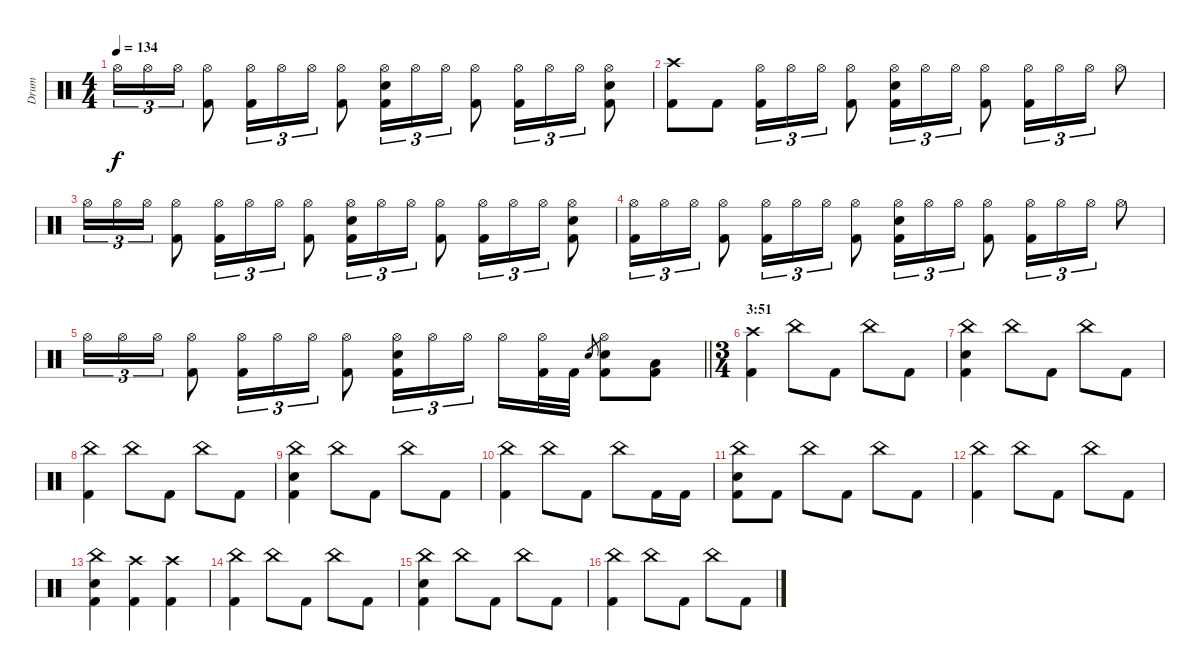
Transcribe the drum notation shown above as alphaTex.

\track ("Drum" "Drum") {instrument percussion}
\staff {score}
\articulation defaults
\ts (4 4)
\tempo 134
\clef neutral
\ks c "Hi-Hat (open)".16{tu (3 2) dy f} "Hi-Hat (open)".16{tu (3 2)} "Hi-Hat (open)".16{tu (3 2)}
("Hi-Hat (open)" "Kick (hit) 2").8 ("Hi-Hat (open)" "Kick (hit) 2").16{tu (3 2)} "Hi-Hat (open)".16{tu (3 2)} "Hi-Hat (open)".16{tu (3 2)} ("Hi-Hat (open)" "Kick (hit) 2").8 ("Hi-Hat (open)" "Electric Snare (hit)" "Kick (hit) 2").16{tu (3 2)} "Hi-Hat (open)".16{tu (3 2)} "Hi-Hat (open)".16{tu (3 2)} ("Hi-Hat (open)" "Kick (hit) 2").8 ("Hi-Hat (open)" "Kick (hit) 2").16{tu (3 2)} "Hi-Hat (open)".16{tu (3 2)} "Hi-Hat (open)".16{tu (3 2)} ("Hi-Hat (open)" "Electric Snare (hit)" "Kick (hit) 2").8 |
("Crash high (hit)" "Kick (hit) 2").8 "Kick (hit) 2".8 ("Hi-Hat (open)" "Kick (hit) 2").16{tu (3 2)} "Hi-Hat (open)".16{tu (3 2)} "Hi-Hat (open)".16{tu (3 2)} ("Hi-Hat (open)" "Kick (hit) 2").8 ("Hi-Hat (open)" "Electric Snare (hit)" "Kick (hit) 2").16{tu (3 2)} "Hi-Hat (open)".16{tu (3 2)} "Hi-Hat (open)".16{tu (3 2)} ("Hi-Hat (open)" "Kick (hit) 2").8 ("Hi-Hat (open)" "Kick (hit) 2").16{tu (3 2)} "Hi-Hat (open)".16{tu (3 2)} "Hi-Hat (open)".16{tu (3 2)} "Hi-Hat (open)".8 |
"Hi-Hat (open)".16{tu (3 2)} "Hi-Hat (open)".16{tu (3 2)} "Hi-Hat (open)".16{tu (3 2)} ("Hi-Hat (open)" "Kick (hit) 2").8 ("Hi-Hat (open)" "Kick (hit) 2").16{tu (3 2)} "Hi-Hat (open)".16{tu (3 2)} "Hi-Hat (open)".16{tu (3 2)} ("Hi-Hat (open)" "Kick (hit) 2").8 ("Hi-Hat (open)" "Electric Snare (hit)" "Kick (hit) 2").16{tu (3 2)} "Hi-Hat (open)".16{tu (3 2)} "Hi-Hat (open)".16{tu (3 2)} ("Hi-Hat (open)" "Kick (hit) 2").8 ("Hi-Hat (open)" "Kick (hit) 2").16{tu (3 2)} "Hi-Hat (open)".16{tu (3 2)} "Hi-Hat (open)".16{tu (3 2)} ("Hi-Hat (open)" "Electric Snare (hit)" "Kick (hit) 2").8 |
("Hi-Hat (open)" "Kick (hit) 2").16{tu (3 2)} "Hi-Hat (open)".16{tu (3 2)} "Hi-Hat (open)".16{tu (3 2)} ("Hi-Hat (open)" "Kick (hit) 2").8 ("Hi-Hat (open)" "Kick (hit) 2").16{tu (3 2)} "Hi-Hat (open)".16{tu (3 2)} "Hi-Hat (open)".16{tu (3 2)} ("Hi-Hat (open)" "Kick (hit) 2").8 ("Hi-Hat (open)" "Electric Snare (hit)" "Kick (hit) 2").16{tu (3 2)} "Hi-Hat (open)".16{tu (3 2)} "Hi-Hat (open)".16{tu (3 2)} ("Hi-Hat (open)" "Kick (hit) 2").8 ("Hi-Hat (open)" "Kick (hit) 2").16{tu (3 2)} "Hi-Hat (open)".16{tu (3 2)} "Hi-Hat (open)".16{tu (3 2)} "Hi-Hat (open)".8 |
\barLineRight lightlight "Hi-Hat (open)".16{tu (3 2)} "Hi-Hat (open)".16{tu (3 2)} "Hi-Hat (open)".16{tu (3 2)}
("Hi-Hat (open)" "Kick (hit) 2").8 ("Hi-Hat (open)" "Kick (hit) 2").16{tu (3 2)} "Hi-Hat (open)".16{tu (3 2)} "Hi-Hat (open)".16{tu (3 2)} ("Hi-Hat (open)" "Kick (hit) 2").8 ("Hi-Hat (open)" "Electric Snare (hit)" "Kick (hit) 2").16{tu (3 2)} "Hi-Hat (open)".16{tu (3 2)} "Hi-Hat (open)".16{tu (3 2)} "Hi-Hat (open)".16 ("Hi-Hat (open)" "Kick (hit) 2").32 "Kick (hit) 2".32 "Electric Snare (hit)".8{gr} ("Hi-Hat (open)" "Electric Snare (hit)" "Kick (hit) 2").8 ("Low Tom (hit)" "Kick (hit) 2").8 |
\ts (3 4)
\section ("" "3:51")
("Crash high (hit)" "Kick (hit) 2").4 "China (hit)".8 "Kick (hit) 2".8 "China (hit)".8 "Kick (hit) 2".8 |
("China (hit)" "Electric Snare (hit)" "Kick (hit) 2").4 "China (hit)".8 "Kick (hit) 2".8 "China (hit)".8 "Kick (hit) 2".8 |
("China (hit)" "Kick (hit) 2").4 "China (hit)".8 "Kick (hit) 2".8 "China (hit)".8 "Kick (hit) 2".8 |
("China (hit)" "Electric Snare (hit)" "Kick (hit) 2").4 "China (hit)".8 "Kick (hit) 2".8 "China (hit)".8 "Kick (hit) 2".8 |
("China (hit)" "Kick (hit) 2").4 "China (hit)".8 "Kick (hit) 2".8 "China (hit)".8 "Kick (hit) 2".16 "Kick (hit) 2".16 |
("China (hit)" "Electric Snare (hit)" "Kick (hit) 2").8 "Kick (hit) 2".8 "China (hit)".8 "Kick (hit) 2".8 "China (hit)".8 "Kick (hit) 2".8 |
("China (hit)" "Kick (hit) 2").4 "China (hit)".8 "Kick (hit) 2".8 "China (hit)".8 "Kick (hit) 2".8 |
("China (hit)" "Electric Snare (hit)" "Kick (hit) 2").4 ("Crash high (hit)" "Kick (hit) 2").4 ("Crash high (hit)" "Kick (hit) 2").4 |
("China (hit)" "Kick (hit) 2").4 "China (hit)".8 "Kick (hit) 2".8 "China (hit)".8 "Kick (hit) 2".8 |
("China (hit)" "Electric Snare (hit)" "Kick (hit) 2").4 "China (hit)".8 "Kick (hit) 2".8 "China (hit)".8 "Kick (hit) 2".8 |
("China (hit)" "Kick (hit) 2").4 "China (hit)".8 "Kick (hit) 2".8 "China (hit)".8 "Kick (hit) 2".8
